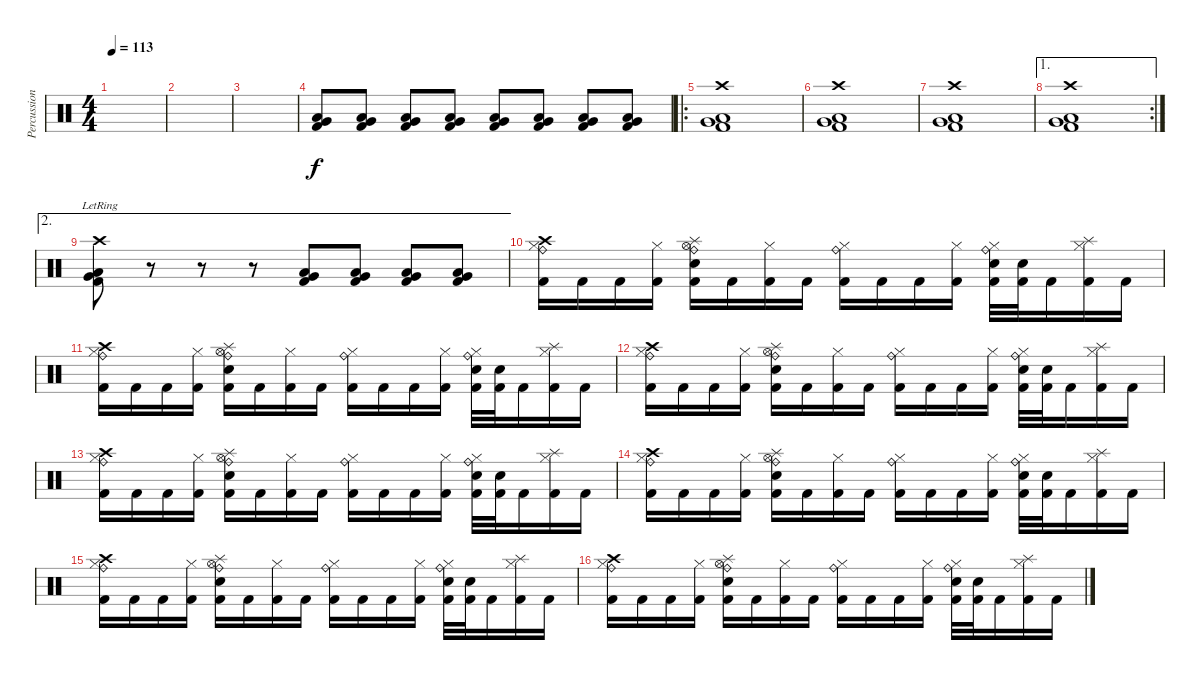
\track ("Percussion" "Percussion") {instrument percussion}
\staff {score}
\articulation defaults
\ts (4 4)
\tempo 113
\clef neutral
\ks c
|
|
|
("Low Tom (hit)" "Very Low Tom (hit)" "Kick (hit) 2").8{volume 1} ("Low Tom (hit)" "Very Low Tom (hit)" "Kick (hit) 2").8{volume 2} ("Low Tom (hit)" "Very Low Tom (hit)" "Kick (hit) 2").8{volume 4} ("Low Tom (hit)" "Very Low Tom (hit)" "Kick (hit) 2").8{volume 6} ("Low Tom (hit)" "Very Low Tom (hit)" "Kick (hit) 2").8{volume 7} ("Low Tom (hit)" "Very Low Tom (hit)" "Kick (hit) 2").8{volume 8} ("Low Tom (hit)" "Very Low Tom (hit)" "Kick (hit) 2").8{volume 10} ("Low Tom (hit)" "Very Low Tom (hit)" "Kick (hit) 2").8{volume 13} |
\ro
("Crash high (hit)" "Low Tom (hit)" "Very Low Tom (hit)" "Kick (hit) 2").1 |
("Crash high (hit)" "Low Tom (hit)" "Very Low Tom (hit)" "Kick (hit) 2").1 |
("Crash high (hit)" "Low Tom (hit)" "Very Low Tom (hit)" "Kick (hit) 2").1 |
\ae 1
\rc 2
("Crash high (hit)" "Low Tom (hit)" "Very Low Tom (hit)" "Kick (hit) 2").1 |
\ae 2
("Crash high (hit)"{lr} "Low Tom (hit)"{lr} "Very Low Tom (hit)"{lr} "Kick (hit) 2"{lr}).8{volume 13} r.8 r.8 r.8 ("Low Tom (hit)" "Very Low Tom (hit)" "Kick (hit) 2").8 ("Low Tom (hit)" "Very Low Tom (hit)" "Kick (hit) 2").8 ("Low Tom (hit)" "Very Low Tom (hit)" "Kick (hit) 2").8 ("Low Tom (hit)" "Very Low Tom (hit)" "Kick (hit) 2").8 |
("Ride (bell)" "Crash high (hit)" "Hi-Hat (closed)" "Kick (hit) 2").16 "Kick (hit) 2".16 "Kick (hit) 2".16 ("Hi-Hat (closed)" "Kick (hit) 2").16 ("Ride (bell)" "Hi-Hat (open)" "Splash (hit)" "Snare (hit) 2" "Kick (hit) 2").16 "Kick (hit) 2".16 ("Hi-Hat (closed)" "Kick (hit) 2").16 "Kick (hit) 2".16 ("Ride (bell)" "Hi-Hat (closed)" "Kick (hit) 2").16 "Kick (hit) 2".16 "Kick (hit) 2".16 ("Hi-Hat (closed)" "Kick (hit) 2").16 ("Ride (bell)" "Hi-Hat (closed)" "Snare (hit) 2" "Kick (hit) 2").32 ("Snare (hit) 2" "Kick (hit) 2").32 "Kick (hit) 2".16 ("Hi-Hat (closed)" "Splash (hit)" "Kick (hit) 2").16 "Kick (hit) 2".16 |
("Ride (bell)" "Crash high (hit)" "Hi-Hat (closed)" "Kick (hit) 2").16 "Kick (hit) 2".16 "Kick (hit) 2".16 ("Hi-Hat (closed)" "Kick (hit) 2").16 ("Ride (bell)" "Hi-Hat (open)" "Splash (hit)" "Snare (hit) 2" "Kick (hit) 2").16 "Kick (hit) 2".16 ("Hi-Hat (closed)" "Kick (hit) 2").16 "Kick (hit) 2".16 ("Ride (bell)" "Hi-Hat (closed)" "Kick (hit) 2").16 "Kick (hit) 2".16 "Kick (hit) 2".16 ("Hi-Hat (closed)" "Kick (hit) 2").16 ("Ride (bell)" "Hi-Hat (closed)" "Snare (hit) 2" "Kick (hit) 2").32 ("Snare (hit) 2" "Kick (hit) 2").32 "Kick (hit) 2".16 ("Hi-Hat (closed)" "Splash (hit)" "Kick (hit) 2").16 "Kick (hit) 2".16 |
("Ride (bell)" "Crash high (hit)" "Hi-Hat (closed)" "Kick (hit) 2").16 "Kick (hit) 2".16 "Kick (hit) 2".16 ("Hi-Hat (closed)" "Kick (hit) 2").16 ("Ride (bell)" "Hi-Hat (open)" "Splash (hit)" "Snare (hit) 2" "Kick (hit) 2").16 "Kick (hit) 2".16 ("Hi-Hat (closed)" "Kick (hit) 2").16 "Kick (hit) 2".16 ("Ride (bell)" "Hi-Hat (closed)" "Kick (hit) 2").16 "Kick (hit) 2".16 "Kick (hit) 2".16 ("Hi-Hat (closed)" "Kick (hit) 2").16 ("Ride (bell)" "Hi-Hat (closed)" "Snare (hit) 2" "Kick (hit) 2").32 ("Snare (hit) 2" "Kick (hit) 2").32 "Kick (hit) 2".16 ("Hi-Hat (closed)" "Splash (hit)" "Kick (hit) 2").16 "Kick (hit) 2".16 |
("Ride (bell)" "Crash high (hit)" "Hi-Hat (closed)" "Kick (hit) 2").16 "Kick (hit) 2".16 "Kick (hit) 2".16 ("Hi-Hat (closed)" "Kick (hit) 2").16 ("Ride (bell)" "Hi-Hat (open)" "Splash (hit)" "Snare (hit) 2" "Kick (hit) 2").16 "Kick (hit) 2".16 ("Hi-Hat (closed)" "Kick (hit) 2").16 "Kick (hit) 2".16 ("Ride (bell)" "Hi-Hat (closed)" "Kick (hit) 2").16 "Kick (hit) 2".16 "Kick (hit) 2".16 ("Hi-Hat (closed)" "Kick (hit) 2").16 ("Ride (bell)" "Hi-Hat (closed)" "Snare (hit) 2" "Kick (hit) 2").32 ("Snare (hit) 2" "Kick (hit) 2").32 "Kick (hit) 2".16 ("Hi-Hat (closed)" "Splash (hit)" "Kick (hit) 2").16 "Kick (hit) 2".16 |
("Ride (bell)" "Crash high (hit)" "Hi-Hat (closed)" "Kick (hit) 2").16 "Kick (hit) 2".16 "Kick (hit) 2".16 ("Hi-Hat (closed)" "Kick (hit) 2").16 ("Ride (bell)" "Hi-Hat (open)" "Splash (hit)" "Snare (hit) 2" "Kick (hit) 2").16 "Kick (hit) 2".16 ("Hi-Hat (closed)" "Kick (hit) 2").16 "Kick (hit) 2".16 ("Ride (bell)" "Hi-Hat (closed)" "Kick (hit) 2").16 "Kick (hit) 2".16 "Kick (hit) 2".16 ("Hi-Hat (closed)" "Kick (hit) 2").16 ("Ride (bell)" "Hi-Hat (closed)" "Snare (hit) 2" "Kick (hit) 2").32 ("Snare (hit) 2" "Kick (hit) 2").32 "Kick (hit) 2".16 ("Hi-Hat (closed)" "Splash (hit)" "Kick (hit) 2").16 "Kick (hit) 2".16 |
("Ride (bell)" "Crash high (hit)" "Hi-Hat (closed)" "Kick (hit) 2").16 "Kick (hit) 2".16 "Kick (hit) 2".16 ("Hi-Hat (closed)" "Kick (hit) 2").16 ("Ride (bell)" "Hi-Hat (open)" "Splash (hit)" "Snare (hit) 2" "Kick (hit) 2").16 "Kick (hit) 2".16 ("Hi-Hat (closed)" "Kick (hit) 2").16 "Kick (hit) 2".16 ("Ride (bell)" "Hi-Hat (closed)" "Kick (hit) 2").16 "Kick (hit) 2".16 "Kick (hit) 2".16 ("Hi-Hat (closed)" "Kick (hit) 2").16 ("Ride (bell)" "Hi-Hat (closed)" "Snare (hit) 2" "Kick (hit) 2").32 ("Snare (hit) 2" "Kick (hit) 2").32 "Kick (hit) 2".16 ("Hi-Hat (closed)" "Splash (hit)" "Kick (hit) 2").16 "Kick (hit) 2".16 |
("Ride (bell)" "Crash high (hit)" "Hi-Hat (closed)" "Kick (hit) 2").16 "Kick (hit) 2".16 "Kick (hit) 2".16 ("Hi-Hat (closed)" "Kick (hit) 2").16 ("Ride (bell)" "Hi-Hat (open)" "Splash (hit)" "Snare (hit) 2" "Kick (hit) 2").16 "Kick (hit) 2".16 ("Hi-Hat (closed)" "Kick (hit) 2").16 "Kick (hit) 2".16 ("Ride (bell)" "Hi-Hat (closed)" "Kick (hit) 2").16 "Kick (hit) 2".16 "Kick (hit) 2".16 ("Hi-Hat (closed)" "Kick (hit) 2").16 ("Ride (bell)" "Hi-Hat (closed)" "Snare (hit) 2" "Kick (hit) 2").32 ("Snare (hit) 2" "Kick (hit) 2").32 "Kick (hit) 2".16 ("Hi-Hat (closed)" "Splash (hit)" "Kick (hit) 2").16 "Kick (hit) 2".16
